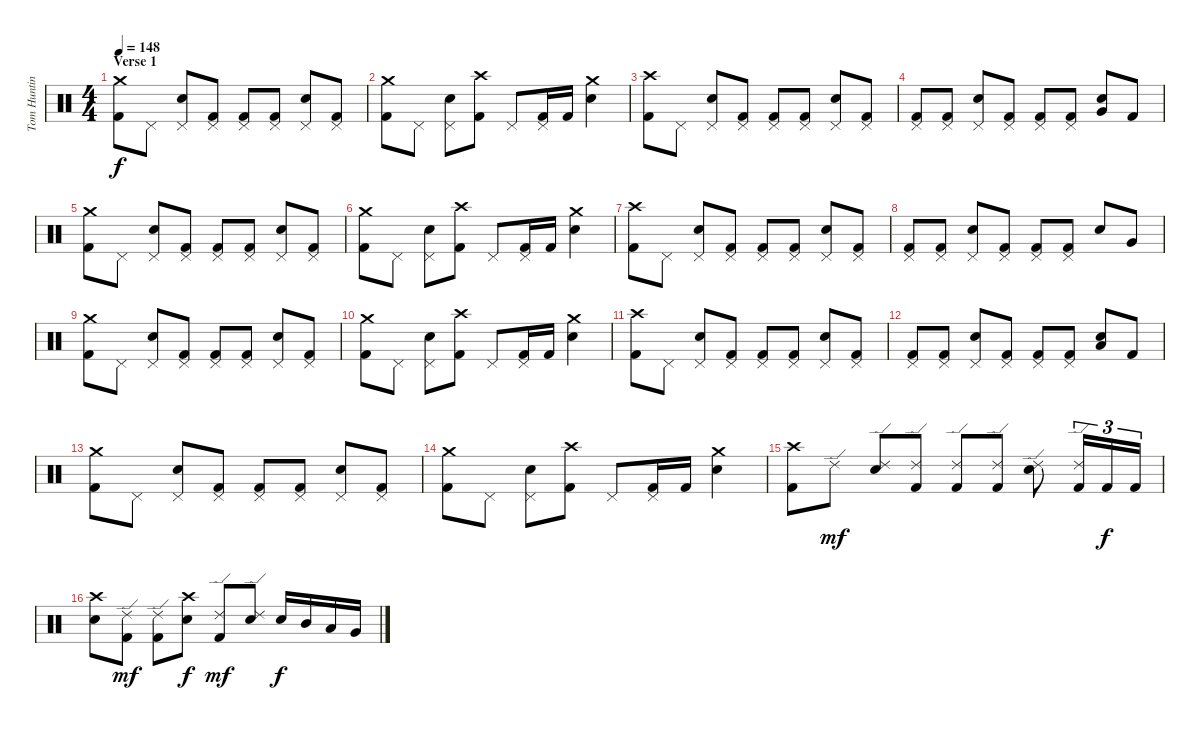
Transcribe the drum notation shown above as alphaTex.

\track ("Tom Hunting" "Tom Huntin") {instrument percussion}
\staff {score}
\articulation defaults
\ts (4 4)
\section ("" "Verse 1")
\tempo 148
\clef neutral
\ks c
("Kick (hit) 2" "Crash medium (hit)").8{dy f} "Pedal Hi-Hat (hit)".8 ("Pedal Hi-Hat (hit)" "Snare (hit) 2").8 ("Kick (hit) 2" "Pedal Hi-Hat (hit)").8 ("Kick (hit) 2" "Pedal Hi-Hat (hit)").8 ("Kick (hit) 2" "Pedal Hi-Hat (hit)").8 ("Pedal Hi-Hat (hit)" "Snare (hit) 2").8 ("Kick (hit) 2" "Pedal Hi-Hat (hit)").8 |
("Kick (hit) 2" "Crash medium (hit)").8 "Pedal Hi-Hat (hit)".8 ("Pedal Hi-Hat (hit)" "Snare (hit) 2").8 ("Kick (hit) 2" "Crash high (hit)").8 "Pedal Hi-Hat (hit)".8 ("Kick (hit) 2" "Pedal Hi-Hat (hit)").16 "Kick (hit) 2".16 ("Crash medium (hit)" "Snare (hit) 2").4 |
("Kick (hit) 2" "Crash high (hit)").8 "Pedal Hi-Hat (hit)".8 ("Pedal Hi-Hat (hit)" "Snare (hit) 2").8 ("Kick (hit) 2" "Pedal Hi-Hat (hit)").8 ("Kick (hit) 2" "Pedal Hi-Hat (hit)").8 ("Kick (hit) 2" "Pedal Hi-Hat (hit)").8 ("Pedal Hi-Hat (hit)" "Snare (hit) 2").8 ("Kick (hit) 2" "Pedal Hi-Hat (hit)").8 |
("Kick (hit) 2" "Pedal Hi-Hat (hit)").8 ("Kick (hit) 2" "Pedal Hi-Hat (hit)").8 ("Pedal Hi-Hat (hit)" "Snare (hit) 2").8 ("Kick (hit) 2" "Pedal Hi-Hat (hit)").8 ("Kick (hit) 2" "Pedal Hi-Hat (hit)").8 ("Kick (hit) 2" "Pedal Hi-Hat (hit)").8 ("Snare (hit) 2" "Very Low Tom (hit)").8 "Kick (hit) 2".8 |
("Kick (hit) 2" "Crash medium (hit)").8 "Pedal Hi-Hat (hit)".8 ("Pedal Hi-Hat (hit)" "Snare (hit) 2").8 ("Kick (hit) 2" "Pedal Hi-Hat (hit)").8 ("Kick (hit) 2" "Pedal Hi-Hat (hit)").8 ("Kick (hit) 2" "Pedal Hi-Hat (hit)").8 ("Pedal Hi-Hat (hit)" "Snare (hit) 2").8 ("Kick (hit) 2" "Pedal Hi-Hat (hit)").8 |
("Kick (hit) 2" "Crash medium (hit)").8 "Pedal Hi-Hat (hit)".8 ("Pedal Hi-Hat (hit)" "Snare (hit) 2").8 ("Kick (hit) 2" "Crash high (hit)").8 "Pedal Hi-Hat (hit)".8 ("Kick (hit) 2" "Pedal Hi-Hat (hit)").16 "Kick (hit) 2".16 ("Crash medium (hit)" "Snare (hit) 2").4 |
("Kick (hit) 2" "Crash high (hit)").8 "Pedal Hi-Hat (hit)".8 ("Pedal Hi-Hat (hit)" "Snare (hit) 2").8 ("Kick (hit) 2" "Pedal Hi-Hat (hit)").8 ("Kick (hit) 2" "Pedal Hi-Hat (hit)").8 ("Kick (hit) 2" "Pedal Hi-Hat (hit)").8 ("Pedal Hi-Hat (hit)" "Snare (hit) 2").8 ("Kick (hit) 2" "Pedal Hi-Hat (hit)").8 |
("Kick (hit) 2" "Pedal Hi-Hat (hit)").8 ("Kick (hit) 2" "Pedal Hi-Hat (hit)").8 ("Pedal Hi-Hat (hit)" "Snare (hit) 2").8 ("Kick (hit) 2" "Pedal Hi-Hat (hit)").8 ("Kick (hit) 2" "Pedal Hi-Hat (hit)").8 ("Kick (hit) 2" "Pedal Hi-Hat (hit)").8 "Snare (hit) 2".8 "Very Low Tom (hit)".8 |
("Kick (hit) 2" "Crash medium (hit)").8 "Pedal Hi-Hat (hit)".8 ("Pedal Hi-Hat (hit)" "Snare (hit) 2").8 ("Kick (hit) 2" "Pedal Hi-Hat (hit)").8 ("Kick (hit) 2" "Pedal Hi-Hat (hit)").8 ("Kick (hit) 2" "Pedal Hi-Hat (hit)").8 ("Pedal Hi-Hat (hit)" "Snare (hit) 2").8 ("Kick (hit) 2" "Pedal Hi-Hat (hit)").8 |
("Kick (hit) 2" "Crash medium (hit)").8 "Pedal Hi-Hat (hit)".8 ("Pedal Hi-Hat (hit)" "Snare (hit) 2").8 ("Kick (hit) 2" "Crash high (hit)").8 "Pedal Hi-Hat (hit)".8 ("Kick (hit) 2" "Pedal Hi-Hat (hit)").16 "Kick (hit) 2".16 ("Crash medium (hit)" "Snare (hit) 2").4 |
("Kick (hit) 2" "Crash high (hit)").8 "Pedal Hi-Hat (hit)".8 ("Pedal Hi-Hat (hit)" "Snare (hit) 2").8 ("Kick (hit) 2" "Pedal Hi-Hat (hit)").8 ("Kick (hit) 2" "Pedal Hi-Hat (hit)").8 ("Kick (hit) 2" "Pedal Hi-Hat (hit)").8 ("Pedal Hi-Hat (hit)" "Snare (hit) 2").8 ("Kick (hit) 2" "Pedal Hi-Hat (hit)").8 |
("Kick (hit) 2" "Pedal Hi-Hat (hit)").8 ("Kick (hit) 2" "Pedal Hi-Hat (hit)").8 ("Pedal Hi-Hat (hit)" "Snare (hit) 2").8 ("Kick (hit) 2" "Pedal Hi-Hat (hit)").8 ("Kick (hit) 2" "Pedal Hi-Hat (hit)").8 ("Kick (hit) 2" "Pedal Hi-Hat (hit)").8 ("Snare (hit) 2" "Low Tom (hit)").8 "Kick (hit) 2".8 |
("Kick (hit) 2" "Crash medium (hit)").8 "Pedal Hi-Hat (hit)".8 ("Pedal Hi-Hat (hit)" "Snare (hit) 2").8 ("Kick (hit) 2" "Pedal Hi-Hat (hit)").8 ("Kick (hit) 2" "Pedal Hi-Hat (hit)").8 ("Kick (hit) 2" "Pedal Hi-Hat (hit)").8 ("Pedal Hi-Hat (hit)" "Snare (hit) 2").8 ("Kick (hit) 2" "Pedal Hi-Hat (hit)").8 |
("Kick (hit) 2" "Crash medium (hit)").8 "Pedal Hi-Hat (hit)".8 ("Pedal Hi-Hat (hit)" "Snare (hit) 2").8 ("Kick (hit) 2" "Crash high (hit)").8 "Pedal Hi-Hat (hit)".8 ("Kick (hit) 2" "Pedal Hi-Hat (hit)").16 "Kick (hit) 2".16 ("Crash medium (hit)" "Snare (hit) 2").4 |
("Kick (hit) 2" "Crash high (hit)").8 "Ride (edge) 2".8{dy mf} ("Ride (edge) 2" "Snare (hit) 2").8 ("Kick (hit) 2" "Ride (edge) 2").8 ("Kick (hit) 2" "Ride (edge) 2").8 ("Kick (hit) 2" "Ride (edge) 2").8 ("Ride (edge) 2" "Snare (hit) 2").8 ("Kick (hit) 2" "Ride (edge) 2").16{tu (3 2)} "Kick (hit) 2".16{tu (3 2) dy f} "Kick (hit) 2".16{tu (3 2)} |
("Crash high (hit)" "Snare (hit) 2").8 ("Kick (hit) 2" "Ride (edge) 2").8{dy mf} ("Kick (hit) 2" "Ride (edge) 2").8 ("Crash high (hit)" "Snare (hit) 2").8{dy f} ("Kick (hit) 2" "Ride (edge) 2").8{dy mf} ("Ride (edge) 2" "Snare (hit) 2").8 "Snare (hit) 2".16{dy f} "Mid Tom (hit)".16 "Low Tom (hit)".16 "Very Low Tom (hit)".16
